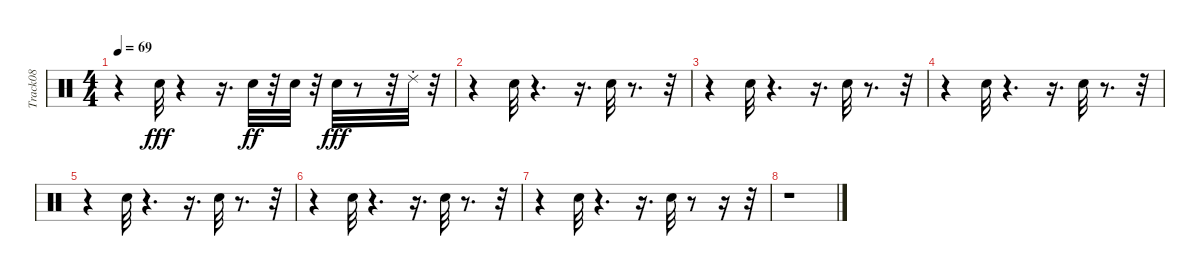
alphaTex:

\track ("Track08" "Track08") {instrument percussion}
\staff {score}
\articulation defaults
\ts (4 4)
\tempo 69
\clef neutral
\ks c
r.4{dy fff} "Snare (hit) 2".32 r.4 r.16{d} "Snare (hit) 2".32{dy ff} r.32 "Snare (hit) 2".32 r.32 "Snare (hit) 2".32{dy fff} r.8 r.32 "Ride (choke) 2".32 r.32 |
r.4 "Snare (hit) 2".32 r.4{d} r.16{d} "Snare (hit) 2".32 r.8{d} r.32 |
r.4 "Snare (hit) 2".32 r.4{d} r.16{d} "Snare (hit) 2".32 r.8{d} r.32 |
r.4 "Snare (hit) 2".32 r.4{d} r.16{d} "Snare (hit) 2".32 r.8{d} r.32 |
r.4 "Snare (hit) 2".32 r.4{d} r.16{d} "Snare (hit) 2".32 r.8{d} r.32 |
r.4 "Snare (hit) 2".32 r.4{d} r.16{d} "Snare (hit) 2".32 r.8{d} r.32 |
r.4 "Snare (hit) 2".32 r.4{d} r.16{d} "Snare (hit) 2".32 r.8 r.16 r.32 |
r.1
